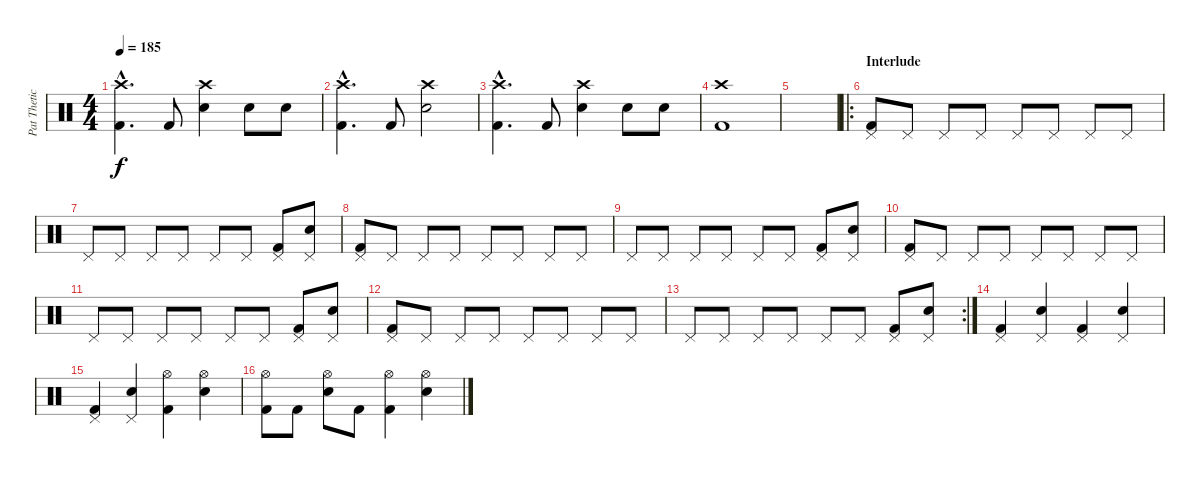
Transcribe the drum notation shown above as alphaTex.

\track ("Pat Thetic" "Pat Thetic") {instrument percussion}
\staff {score}
\articulation defaults
\ts (4 4)
\tempo 185
\clef neutral
\ks c
("Crash high (hit)"{hac} "Kick (hit) 2"{hac}).4{d dy f} "Kick (hit) 2".8 ("Crash high (hit)" "Electric Snare (hit)").4 "Electric Snare (hit)".8 "Electric Snare (hit)".8 |
("Crash high (hit)"{hac} "Kick (hit) 2"{hac}).4{d} "Kick (hit) 2".8 ("Crash high (hit)" "Electric Snare (hit)").2 |
("Crash high (hit)"{hac} "Kick (hit) 2"{hac}).4{d} "Kick (hit) 2".8 ("Crash high (hit)" "Electric Snare (hit)").4 "Electric Snare (hit)".8 "Electric Snare (hit)".8 |
("Crash high (hit)" "Kick (hit) 2").1 |
|
\ro
\section ("" "Interlude")
("Pedal Hi-Hat (hit)" "Kick (hit) 2").8 "Pedal Hi-Hat (hit)".8 "Pedal Hi-Hat (hit)".8 "Pedal Hi-Hat (hit)".8 "Pedal Hi-Hat (hit)".8 "Pedal Hi-Hat (hit)".8 "Pedal Hi-Hat (hit)".8 "Pedal Hi-Hat (hit)".8 |
"Pedal Hi-Hat (hit)".8 "Pedal Hi-Hat (hit)".8 "Pedal Hi-Hat (hit)".8 "Pedal Hi-Hat (hit)".8 "Pedal Hi-Hat (hit)".8 "Pedal Hi-Hat (hit)".8 ("Pedal Hi-Hat (hit)" "Kick (hit) 2").8 ("Pedal Hi-Hat (hit)" "Electric Snare (hit)").8 |
("Pedal Hi-Hat (hit)" "Kick (hit) 2").8 "Pedal Hi-Hat (hit)".8 "Pedal Hi-Hat (hit)".8 "Pedal Hi-Hat (hit)".8 "Pedal Hi-Hat (hit)".8 "Pedal Hi-Hat (hit)".8 "Pedal Hi-Hat (hit)".8 "Pedal Hi-Hat (hit)".8 |
"Pedal Hi-Hat (hit)".8 "Pedal Hi-Hat (hit)".8 "Pedal Hi-Hat (hit)".8 "Pedal Hi-Hat (hit)".8 "Pedal Hi-Hat (hit)".8 "Pedal Hi-Hat (hit)".8 ("Pedal Hi-Hat (hit)" "Kick (hit) 2").8 ("Pedal Hi-Hat (hit)" "Electric Snare (hit)").8 |
("Pedal Hi-Hat (hit)" "Kick (hit) 2").8 "Pedal Hi-Hat (hit)".8 "Pedal Hi-Hat (hit)".8 "Pedal Hi-Hat (hit)".8 "Pedal Hi-Hat (hit)".8 "Pedal Hi-Hat (hit)".8 "Pedal Hi-Hat (hit)".8 "Pedal Hi-Hat (hit)".8 |
"Pedal Hi-Hat (hit)".8 "Pedal Hi-Hat (hit)".8 "Pedal Hi-Hat (hit)".8 "Pedal Hi-Hat (hit)".8 "Pedal Hi-Hat (hit)".8 "Pedal Hi-Hat (hit)".8 ("Pedal Hi-Hat (hit)" "Kick (hit) 2").8 ("Pedal Hi-Hat (hit)" "Electric Snare (hit)").8 |
("Pedal Hi-Hat (hit)" "Kick (hit) 2").8 "Pedal Hi-Hat (hit)".8 "Pedal Hi-Hat (hit)".8 "Pedal Hi-Hat (hit)".8 "Pedal Hi-Hat (hit)".8 "Pedal Hi-Hat (hit)".8 "Pedal Hi-Hat (hit)".8 "Pedal Hi-Hat (hit)".8 |
\rc 2 "Pedal Hi-Hat (hit)".8 "Pedal Hi-Hat (hit)".8 "Pedal Hi-Hat (hit)".8 "Pedal Hi-Hat (hit)".8 "Pedal Hi-Hat (hit)".8 "Pedal Hi-Hat (hit)".8
("Pedal Hi-Hat (hit)" "Kick (hit) 2").8 ("Pedal Hi-Hat (hit)" "Electric Snare (hit)").8 |
("Pedal Hi-Hat (hit)" "Kick (hit) 2").4 ("Pedal Hi-Hat (hit)" "Electric Snare (hit)").4 ("Pedal Hi-Hat (hit)" "Kick (hit) 2").4 ("Pedal Hi-Hat (hit)" "Electric Snare (hit)").4 |
("Pedal Hi-Hat (hit)" "Kick (hit) 2").4 ("Pedal Hi-Hat (hit)" "Electric Snare (hit)").4 ("Hi-Hat (open)" "Kick (hit) 2").4 ("Hi-Hat (open)" "Electric Snare (hit)").4 |
("Hi-Hat (open)" "Kick (hit) 2").8 "Kick (hit) 2".8 ("Hi-Hat (open)" "Electric Snare (hit)").8 "Kick (hit) 2".8 ("Hi-Hat (open)" "Kick (hit) 2").4 ("Hi-Hat (open)" "Electric Snare (hit)").4
